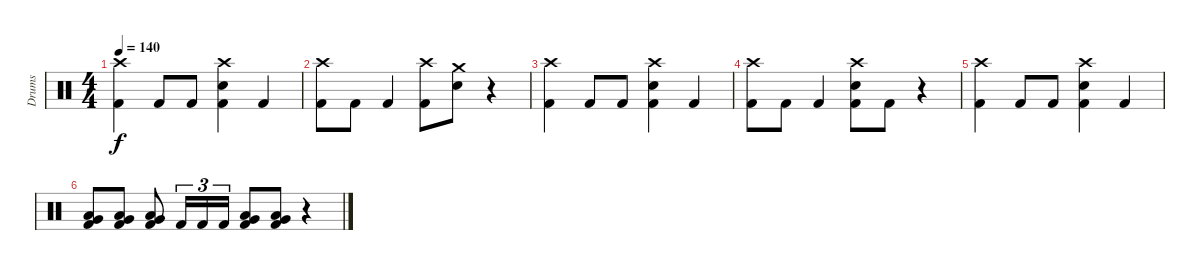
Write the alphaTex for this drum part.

\track ("Drums" "Drums") {instrument percussion}
\staff {score}
\articulation defaults
\ts (4 4)
\tempo 140
\clef neutral
\ks c
("Crash high (hit)" "Kick (hit) 2").4{dy f} "Kick (hit) 2".8 "Kick (hit) 2".8 ("Crash high (hit)" "Electric Snare (hit)" "Kick (hit) 2").4 "Kick (hit) 2".4 |
("Crash high (hit)" "Kick (hit) 2").8 "Kick (hit) 2".8 "Kick (hit) 2".4 ("Crash high (hit)" "Kick (hit) 2").8 ("Crash medium (hit)" "Electric Snare (hit)").8 r.4 |
("Crash high (hit)" "Kick (hit) 2").4 "Kick (hit) 2".8 "Kick (hit) 2".8 ("Crash high (hit)" "Electric Snare (hit)" "Kick (hit) 2").4 "Kick (hit) 2".4 |
("Crash high (hit)" "Kick (hit) 2").8 "Kick (hit) 2".8 "Kick (hit) 2".4 ("Crash high (hit)" "Electric Snare (hit)" "Kick (hit) 2").8 "Kick (hit) 2".8 r.4 |
("Crash high (hit)" "Kick (hit) 2").4 "Kick (hit) 2".8 "Kick (hit) 2".8 ("Crash high (hit)" "Electric Snare (hit)" "Kick (hit) 2").4 "Kick (hit) 2".4 |
("Very Low Tom (hit)" "Low Floor Tom (hit)" "Kick (hit) 2").8 ("Very Low Tom (hit)" "Low Floor Tom (hit)" "Kick (hit) 2").8 ("Very Low Tom (hit)" "Low Floor Tom (hit)" "Kick (hit) 2").8 "Kick (hit) 2".16{tu (3 2)} "Kick (hit) 2".16{tu (3 2)} "Kick (hit) 2".16{tu (3 2)} ("Very Low Tom (hit)" "Low Floor Tom (hit)" "Kick (hit) 2").8 ("Very Low Tom (hit)" "Low Floor Tom (hit)" "Kick (hit) 2").8 r.4
